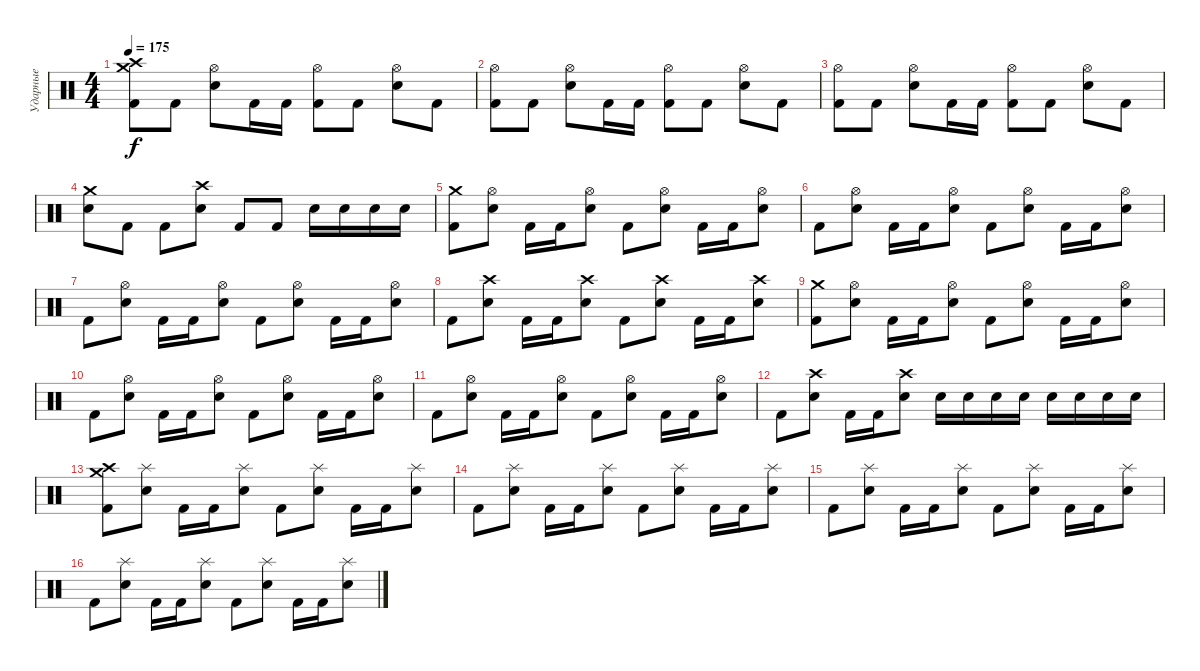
\track ("Ударные" "Ударные") {instrument percussion}
\staff {score}
\articulation defaults
\ts (4 4)
\tempo 175
\clef neutral
\ks c
("Crash medium (hit)" "Crash high (hit)" "Kick (hit) 2").8{dy f} "Kick (hit) 2".8 ("Hi-Hat (open)" "Electric Snare (hit)").8 "Kick (hit) 2".16 "Kick (hit) 2".16 ("Hi-Hat (open)" "Kick (hit) 2").8 "Kick (hit) 2".8 ("Hi-Hat (open)" "Electric Snare (hit)").8 "Kick (hit) 2".8 |
("Hi-Hat (open)" "Kick (hit) 2").8 "Kick (hit) 2".8 ("Hi-Hat (open)" "Electric Snare (hit)").8 "Kick (hit) 2".16 "Kick (hit) 2".16 ("Hi-Hat (open)" "Kick (hit) 2").8 "Kick (hit) 2".8 ("Hi-Hat (open)" "Electric Snare (hit)").8 "Kick (hit) 2".8 |
("Hi-Hat (open)" "Kick (hit) 2").8 "Kick (hit) 2".8 ("Hi-Hat (open)" "Electric Snare (hit)").8 "Kick (hit) 2".16 "Kick (hit) 2".16 ("Hi-Hat (open)" "Kick (hit) 2").8 "Kick (hit) 2".8 ("Hi-Hat (open)" "Electric Snare (hit)").8 "Kick (hit) 2".8 |
("Crash medium (hit)" "Electric Snare (hit)").8 "Kick (hit) 2".8 "Kick (hit) 2".8 ("Crash high (hit)" "Electric Snare (hit)").8 "Kick (hit) 2".8 "Kick (hit) 2".8 "Electric Snare (hit)".16 "Electric Snare (hit)".16 "Electric Snare (hit)".16 "Electric Snare (hit)".16 |
("Crash medium (hit)" "Kick (hit) 2").8 ("Hi-Hat (open)" "Electric Snare (hit)").8 "Kick (hit) 2".16 "Kick (hit) 2".16 ("Hi-Hat (open)" "Electric Snare (hit)").8 "Kick (hit) 2".8 ("Hi-Hat (open)" "Electric Snare (hit)").8 "Kick (hit) 2".16 "Kick (hit) 2".16 ("Hi-Hat (open)" "Electric Snare (hit)").8 |
"Kick (hit) 2".8 ("Hi-Hat (open)" "Electric Snare (hit)").8 "Kick (hit) 2".16 "Kick (hit) 2".16 ("Hi-Hat (open)" "Electric Snare (hit)").8 "Kick (hit) 2".8 ("Hi-Hat (open)" "Electric Snare (hit)").8 "Kick (hit) 2".16 "Kick (hit) 2".16 ("Hi-Hat (open)" "Electric Snare (hit)").8 |
"Kick (hit) 2".8 ("Hi-Hat (open)" "Electric Snare (hit)").8 "Kick (hit) 2".16 "Kick (hit) 2".16 ("Hi-Hat (open)" "Electric Snare (hit)").8 "Kick (hit) 2".8 ("Hi-Hat (open)" "Electric Snare (hit)").8 "Kick (hit) 2".16 "Kick (hit) 2".16 ("Hi-Hat (open)" "Electric Snare (hit)").8 |
"Kick (hit) 2".8 ("Crash high (hit)" "Electric Snare (hit)").8 "Kick (hit) 2".16 "Kick (hit) 2".16 ("Crash high (hit)" "Electric Snare (hit)").8 "Kick (hit) 2".8 ("Crash high (hit)" "Electric Snare (hit)").8 "Kick (hit) 2".16 "Kick (hit) 2".16 ("Crash high (hit)" "Electric Snare (hit)").8 |
("Crash medium (hit)" "Kick (hit) 2").8 ("Hi-Hat (open)" "Electric Snare (hit)").8 "Kick (hit) 2".16 "Kick (hit) 2".16 ("Hi-Hat (open)" "Electric Snare (hit)").8 "Kick (hit) 2".8 ("Hi-Hat (open)" "Electric Snare (hit)").8 "Kick (hit) 2".16 "Kick (hit) 2".16 ("Hi-Hat (open)" "Electric Snare (hit)").8 |
"Kick (hit) 2".8 ("Hi-Hat (open)" "Electric Snare (hit)").8 "Kick (hit) 2".16 "Kick (hit) 2".16 ("Hi-Hat (open)" "Electric Snare (hit)").8 "Kick (hit) 2".8 ("Hi-Hat (open)" "Electric Snare (hit)").8 "Kick (hit) 2".16 "Kick (hit) 2".16 ("Hi-Hat (open)" "Electric Snare (hit)").8 |
"Kick (hit) 2".8 ("Hi-Hat (open)" "Electric Snare (hit)").8 "Kick (hit) 2".16 "Kick (hit) 2".16 ("Hi-Hat (open)" "Electric Snare (hit)").8 "Kick (hit) 2".8 ("Hi-Hat (open)" "Electric Snare (hit)").8 "Kick (hit) 2".16 "Kick (hit) 2".16 ("Hi-Hat (open)" "Electric Snare (hit)").8 |
"Kick (hit) 2".8 ("Crash high (hit)" "Electric Snare (hit)").8 "Kick (hit) 2".16 "Kick (hit) 2".16 ("Crash high (hit)" "Electric Snare (hit)").8 "Electric Snare (hit)".16 "Electric Snare (hit)".16 "Electric Snare (hit)".16 "Electric Snare (hit)".16 "Electric Snare (hit)".16 "Electric Snare (hit)".16 "Electric Snare (hit)".16 "Electric Snare (hit)".16 |
("Crash medium (hit)" "Crash high (hit)" "Kick (hit) 2").8 ("Splash (hit)" "Electric Snare (hit)").8 "Kick (hit) 2".16 "Kick (hit) 2".16 ("Splash (hit)" "Electric Snare (hit)").8 "Kick (hit) 2".8 ("Splash (hit)" "Electric Snare (hit)").8 "Kick (hit) 2".16 "Kick (hit) 2".16 ("Splash (hit)" "Electric Snare (hit)").8 |
"Kick (hit) 2".8 ("Splash (hit)" "Electric Snare (hit)").8 "Kick (hit) 2".16 "Kick (hit) 2".16 ("Splash (hit)" "Electric Snare (hit)").8 "Kick (hit) 2".8 ("Splash (hit)" "Electric Snare (hit)").8 "Kick (hit) 2".16 "Kick (hit) 2".16 ("Splash (hit)" "Electric Snare (hit)").8 |
"Kick (hit) 2".8 ("Splash (hit)" "Electric Snare (hit)").8 "Kick (hit) 2".16 "Kick (hit) 2".16 ("Splash (hit)" "Electric Snare (hit)").8 "Kick (hit) 2".8 ("Splash (hit)" "Electric Snare (hit)").8 "Kick (hit) 2".16 "Kick (hit) 2".16 ("Splash (hit)" "Electric Snare (hit)").8 |
"Kick (hit) 2".8 ("Splash (hit)" "Electric Snare (hit)").8 "Kick (hit) 2".16 "Kick (hit) 2".16 ("Splash (hit)" "Electric Snare (hit)").8 "Kick (hit) 2".8 ("Splash (hit)" "Electric Snare (hit)").8 "Kick (hit) 2".16 "Kick (hit) 2".16 ("Splash (hit)" "Electric Snare (hit)").8
